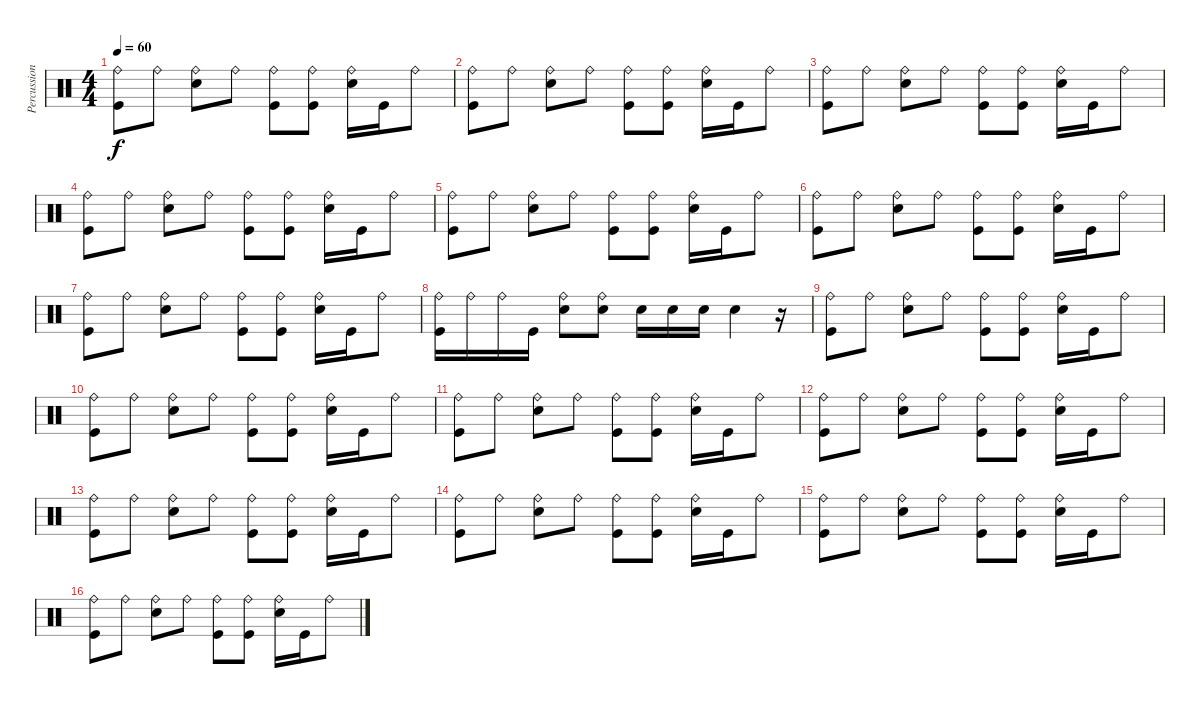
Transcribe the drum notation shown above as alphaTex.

\track ("Percussion" "Percussion") {instrument percussion}
\staff {score}
\articulation defaults
\ts (4 4)
\tempo 60
\clef neutral
\ks c
("Ride (bell)" "Kick (hit)").8{dy f} "Ride (bell)".8 ("Ride (bell)" "Electric Snare (hit)").8 "Ride (bell)".8 ("Ride (bell)" "Kick (hit)").8 ("Ride (bell)" "Kick (hit)").8 ("Ride (bell)" "Electric Snare (hit)").16 "Kick (hit)".16 "Ride (bell)".8 |
("Ride (bell)" "Kick (hit)").8 "Ride (bell)".8 ("Ride (bell)" "Electric Snare (hit)").8 "Ride (bell)".8 ("Ride (bell)" "Kick (hit)").8 ("Ride (bell)" "Kick (hit)").8 ("Ride (bell)" "Electric Snare (hit)").16 "Kick (hit)".16 "Ride (bell)".8 |
("Ride (bell)" "Kick (hit)").8 "Ride (bell)".8 ("Ride (bell)" "Electric Snare (hit)").8 "Ride (bell)".8 ("Ride (bell)" "Kick (hit)").8 ("Ride (bell)" "Kick (hit)").8 ("Ride (bell)" "Electric Snare (hit)").16 "Kick (hit)".16 "Ride (bell)".8 |
("Ride (bell)" "Kick (hit)").8 "Ride (bell)".8 ("Ride (bell)" "Electric Snare (hit)").8 "Ride (bell)".8 ("Ride (bell)" "Kick (hit)").8 ("Ride (bell)" "Kick (hit)").8 ("Ride (bell)" "Electric Snare (hit)").16 "Kick (hit)".16 "Ride (bell)".8 |
("Ride (bell)" "Kick (hit)").8 "Ride (bell)".8 ("Ride (bell)" "Electric Snare (hit)").8 "Ride (bell)".8 ("Ride (bell)" "Kick (hit)").8 ("Ride (bell)" "Kick (hit)").8 ("Ride (bell)" "Electric Snare (hit)").16 "Kick (hit)".16 "Ride (bell)".8 |
("Ride (bell)" "Kick (hit)").8 "Ride (bell)".8 ("Ride (bell)" "Electric Snare (hit)").8 "Ride (bell)".8 ("Ride (bell)" "Kick (hit)").8 ("Ride (bell)" "Kick (hit)").8 ("Ride (bell)" "Electric Snare (hit)").16 "Kick (hit)".16 "Ride (bell)".8 |
("Ride (bell)" "Kick (hit)").8 "Ride (bell)".8 ("Ride (bell)" "Electric Snare (hit)").8 "Ride (bell)".8 ("Ride (bell)" "Kick (hit)").8 ("Ride (bell)" "Kick (hit)").8 ("Ride (bell)" "Electric Snare (hit)").16 "Kick (hit)".16 "Ride (bell)".8 |
("Ride (bell)" "Kick (hit)").16 "Ride (bell)".16 "Ride (bell)".16 "Kick (hit)".16 ("Ride (bell)" "Electric Snare (hit)").8 ("Ride (bell)" "Electric Snare (hit)").8 "Electric Snare (hit)".16 "Electric Snare (hit)".16 "Electric Snare (hit)".16 "Electric Snare (hit)".4 r.16 |
("Ride (bell)" "Kick (hit)").8 "Ride (bell)".8 ("Ride (bell)" "Electric Snare (hit)").8 "Ride (bell)".8 ("Ride (bell)" "Kick (hit)").8 ("Ride (bell)" "Kick (hit)").8 ("Ride (bell)" "Electric Snare (hit)").16 "Kick (hit)".16 "Ride (bell)".8 |
("Ride (bell)" "Kick (hit)").8 "Ride (bell)".8 ("Ride (bell)" "Electric Snare (hit)").8 "Ride (bell)".8 ("Ride (bell)" "Kick (hit)").8 ("Ride (bell)" "Kick (hit)").8 ("Ride (bell)" "Electric Snare (hit)").16 "Kick (hit)".16 "Ride (bell)".8 |
("Ride (bell)" "Kick (hit)").8 "Ride (bell)".8 ("Ride (bell)" "Electric Snare (hit)").8 "Ride (bell)".8 ("Ride (bell)" "Kick (hit)").8 ("Ride (bell)" "Kick (hit)").8 ("Ride (bell)" "Electric Snare (hit)").16 "Kick (hit)".16 "Ride (bell)".8 |
("Ride (bell)" "Kick (hit)").8 "Ride (bell)".8 ("Ride (bell)" "Electric Snare (hit)").8 "Ride (bell)".8 ("Ride (bell)" "Kick (hit)").8 ("Ride (bell)" "Kick (hit)").8 ("Ride (bell)" "Electric Snare (hit)").16 "Kick (hit)".16 "Ride (bell)".8 |
("Ride (bell)" "Kick (hit)").8 "Ride (bell)".8 ("Ride (bell)" "Electric Snare (hit)").8 "Ride (bell)".8 ("Ride (bell)" "Kick (hit)").8 ("Ride (bell)" "Kick (hit)").8 ("Ride (bell)" "Electric Snare (hit)").16 "Kick (hit)".16 "Ride (bell)".8 |
("Ride (bell)" "Kick (hit)").8 "Ride (bell)".8 ("Ride (bell)" "Electric Snare (hit)").8 "Ride (bell)".8 ("Ride (bell)" "Kick (hit)").8 ("Ride (bell)" "Kick (hit)").8 ("Ride (bell)" "Electric Snare (hit)").16 "Kick (hit)".16 "Ride (bell)".8 |
("Ride (bell)" "Kick (hit)").8 "Ride (bell)".8 ("Ride (bell)" "Electric Snare (hit)").8 "Ride (bell)".8 ("Ride (bell)" "Kick (hit)").8 ("Ride (bell)" "Kick (hit)").8 ("Ride (bell)" "Electric Snare (hit)").16 "Kick (hit)".16 "Ride (bell)".8 |
("Ride (bell)" "Kick (hit)").8 "Ride (bell)".8 ("Ride (bell)" "Electric Snare (hit)").8 "Ride (bell)".8 ("Ride (bell)" "Kick (hit)").8 ("Ride (bell)" "Kick (hit)").8 ("Ride (bell)" "Electric Snare (hit)").16 "Kick (hit)".16 "Ride (bell)".8
